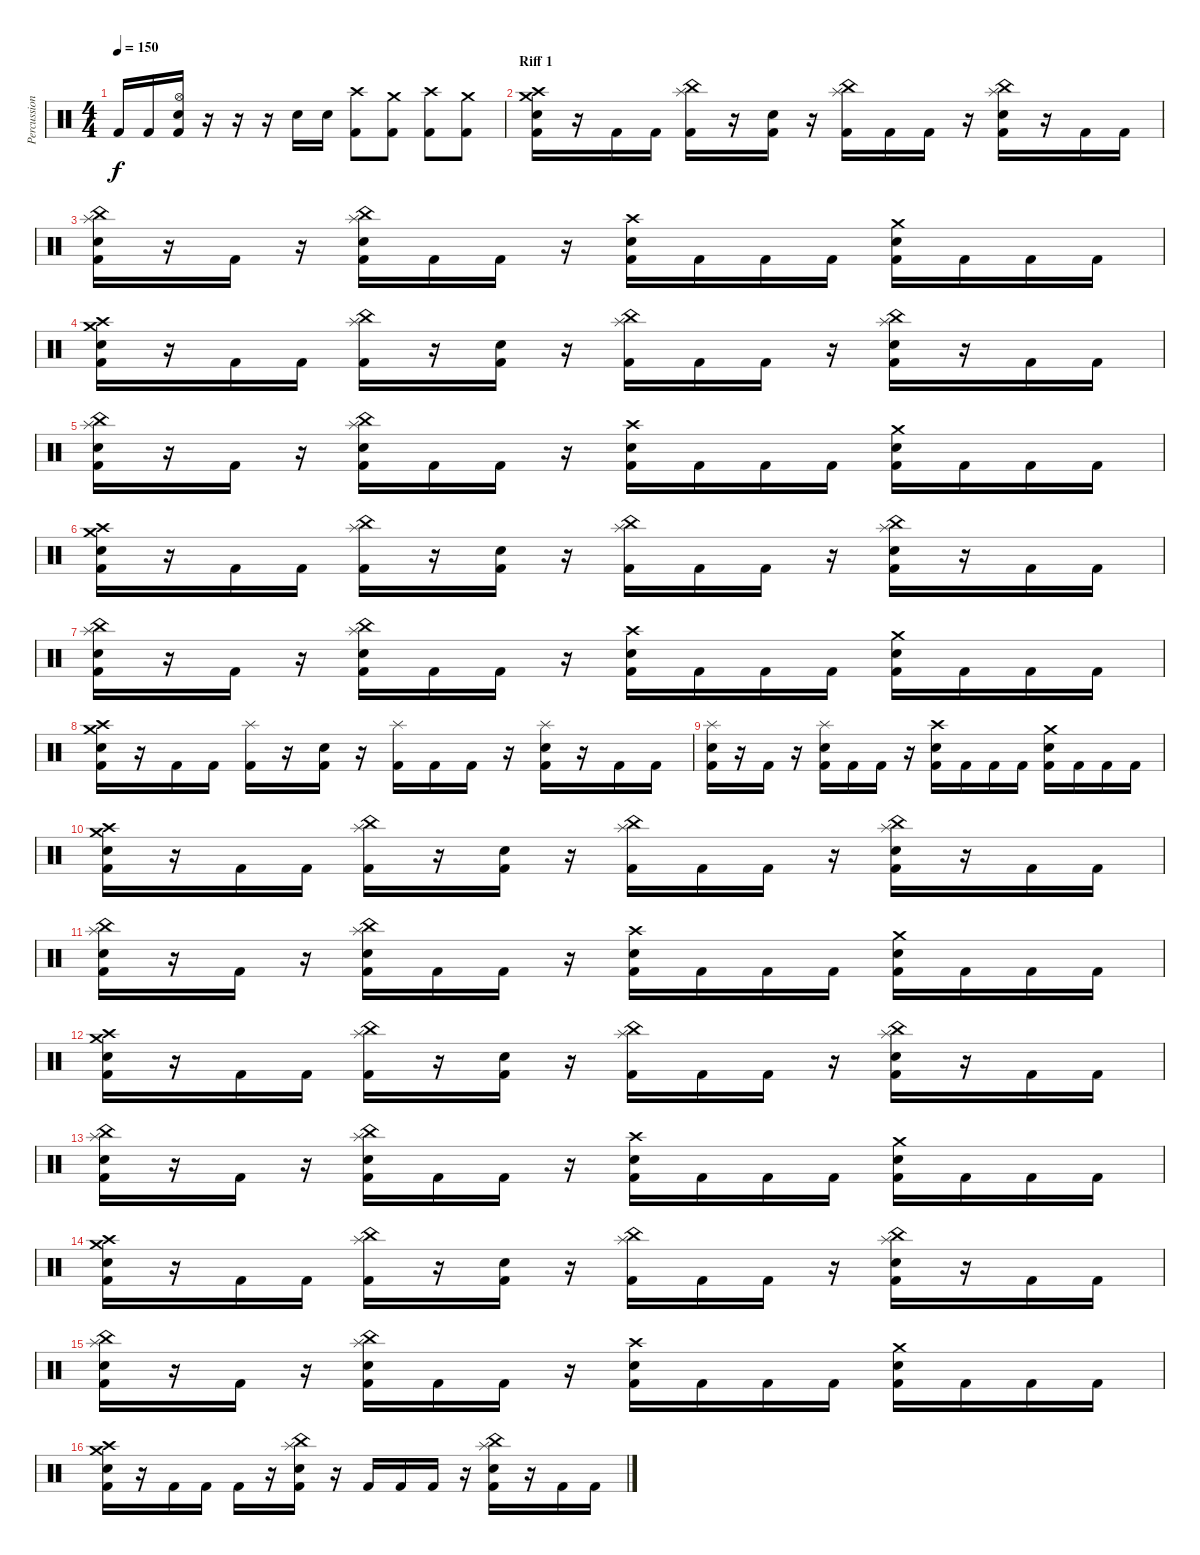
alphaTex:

\track ("Percussion" "Percussion") {instrument percussion}
\staff {score}
\articulation defaults
\ts (4 4)
\tempo 150
\clef neutral
\ks c "Kick (hit) 2".16{dy f} "Kick (hit) 2".16
("Hi-Hat (open)" "Electric Snare (hit)" "Kick (hit) 2").16 r.16 r.16 r.16 "Electric Snare (hit)".16 "Electric Snare (hit)".16 ("Crash high (hit)" "Kick (hit) 2").8 ("Crash medium (hit)" "Kick (hit) 2").8 ("Crash high (hit)" "Kick (hit) 2").8 ("Crash medium (hit)" "Kick (hit) 2").8 |
\section ("" "Riff 1")
("Crash medium (hit)" "Crash high (hit)" "Electric Snare (hit)" "Kick (hit) 2").16 r.16 "Kick (hit) 2".16 "Kick (hit) 2".16 ("Splash (hit)" "China (hit)" "Kick (hit) 2").16 r.16 ("Electric Snare (hit)" "Kick (hit) 2").16 r.16 ("Splash (hit)" "China (hit)" "Kick (hit) 2").16 "Kick (hit) 2".16 "Kick (hit) 2".16 r.16 ("Splash (hit)" "China (hit)" "Electric Snare (hit)" "Kick (hit) 2").16 r.16 "Kick (hit) 2".16 "Kick (hit) 2".16 |
("Splash (hit)" "China (hit)" "Electric Snare (hit)" "Kick (hit) 2").16 r.16 "Kick (hit) 2".16 r.16 ("Splash (hit)" "China (hit)" "Electric Snare (hit)" "Kick (hit) 2").16 "Kick (hit) 2".16 "Kick (hit) 2".16 r.16 ("Crash high (hit)" "Electric Snare (hit)" "Kick (hit) 2").16 "Kick (hit) 2".16 "Kick (hit) 2".16 "Kick (hit) 2".16 ("Crash medium (hit)" "Electric Snare (hit)" "Kick (hit) 2").16 "Kick (hit) 2".16 "Kick (hit) 2".16 "Kick (hit) 2".16 |
("Crash medium (hit)" "Crash high (hit)" "Electric Snare (hit)" "Kick (hit) 2").16 r.16 "Kick (hit) 2".16 "Kick (hit) 2".16 ("Splash (hit)" "China (hit)" "Kick (hit) 2").16 r.16 ("Electric Snare (hit)" "Kick (hit) 2").16 r.16 ("Splash (hit)" "China (hit)" "Kick (hit) 2").16 "Kick (hit) 2".16 "Kick (hit) 2".16 r.16 ("Splash (hit)" "China (hit)" "Electric Snare (hit)" "Kick (hit) 2").16 r.16 "Kick (hit) 2".16 "Kick (hit) 2".16 |
("Splash (hit)" "China (hit)" "Electric Snare (hit)" "Kick (hit) 2").16 r.16 "Kick (hit) 2".16 r.16 ("Splash (hit)" "China (hit)" "Electric Snare (hit)" "Kick (hit) 2").16 "Kick (hit) 2".16 "Kick (hit) 2".16 r.16 ("Crash high (hit)" "Electric Snare (hit)" "Kick (hit) 2").16 "Kick (hit) 2".16 "Kick (hit) 2".16 "Kick (hit) 2".16 ("Crash medium (hit)" "Electric Snare (hit)" "Kick (hit) 2").16 "Kick (hit) 2".16 "Kick (hit) 2".16 "Kick (hit) 2".16 |
("Crash medium (hit)" "Crash high (hit)" "Electric Snare (hit)" "Kick (hit) 2").16 r.16 "Kick (hit) 2".16 "Kick (hit) 2".16 ("Splash (hit)" "China (hit)" "Kick (hit) 2").16 r.16 ("Electric Snare (hit)" "Kick (hit) 2").16 r.16 ("Splash (hit)" "China (hit)" "Kick (hit) 2").16 "Kick (hit) 2".16 "Kick (hit) 2".16 r.16 ("Splash (hit)" "China (hit)" "Electric Snare (hit)" "Kick (hit) 2").16 r.16 "Kick (hit) 2".16 "Kick (hit) 2".16 |
("Splash (hit)" "China (hit)" "Electric Snare (hit)" "Kick (hit) 2").16 r.16 "Kick (hit) 2".16 r.16 ("Splash (hit)" "China (hit)" "Electric Snare (hit)" "Kick (hit) 2").16 "Kick (hit) 2".16 "Kick (hit) 2".16 r.16 ("Crash high (hit)" "Electric Snare (hit)" "Kick (hit) 2").16 "Kick (hit) 2".16 "Kick (hit) 2".16 "Kick (hit) 2".16 ("Crash medium (hit)" "Electric Snare (hit)" "Kick (hit) 2").16 "Kick (hit) 2".16 "Kick (hit) 2".16 "Kick (hit) 2".16 |
("Crash medium (hit)" "Crash high (hit)" "Electric Snare (hit)" "Kick (hit) 2").16 r.16 "Kick (hit) 2".16 "Kick (hit) 2".16 ("Splash (hit)" "Kick (hit) 2").16 r.16 ("Electric Snare (hit)" "Kick (hit) 2").16 r.16 ("Splash (hit)" "Kick (hit) 2").16 "Kick (hit) 2".16 "Kick (hit) 2".16 r.16 ("Splash (hit)" "Electric Snare (hit)" "Kick (hit) 2").16 r.16 "Kick (hit) 2".16 "Kick (hit) 2".16 |
("Splash (hit)" "Electric Snare (hit)" "Kick (hit) 2").16 r.16 "Kick (hit) 2".16 r.16 ("Splash (hit)" "Electric Snare (hit)" "Kick (hit) 2").16 "Kick (hit) 2".16 "Kick (hit) 2".16 r.16 ("Crash high (hit)" "Electric Snare (hit)" "Kick (hit) 2").16 "Kick (hit) 2".16 "Kick (hit) 2".16 "Kick (hit) 2".16 ("Crash medium (hit)" "Electric Snare (hit)" "Kick (hit) 2").16 "Kick (hit) 2".16 "Kick (hit) 2".16 "Kick (hit) 2".16 |
("Crash medium (hit)" "Crash high (hit)" "Electric Snare (hit)" "Kick (hit) 2").16 r.16 "Kick (hit) 2".16 "Kick (hit) 2".16 ("Splash (hit)" "China (hit)" "Kick (hit) 2").16 r.16 ("Electric Snare (hit)" "Kick (hit) 2").16 r.16 ("Splash (hit)" "China (hit)" "Kick (hit) 2").16 "Kick (hit) 2".16 "Kick (hit) 2".16 r.16 ("Splash (hit)" "China (hit)" "Electric Snare (hit)" "Kick (hit) 2").16 r.16 "Kick (hit) 2".16 "Kick (hit) 2".16 |
("Splash (hit)" "China (hit)" "Electric Snare (hit)" "Kick (hit) 2").16 r.16 "Kick (hit) 2".16 r.16 ("Splash (hit)" "China (hit)" "Electric Snare (hit)" "Kick (hit) 2").16 "Kick (hit) 2".16 "Kick (hit) 2".16 r.16 ("Crash high (hit)" "Electric Snare (hit)" "Kick (hit) 2").16 "Kick (hit) 2".16 "Kick (hit) 2".16 "Kick (hit) 2".16 ("Crash medium (hit)" "Electric Snare (hit)" "Kick (hit) 2").16 "Kick (hit) 2".16 "Kick (hit) 2".16 "Kick (hit) 2".16 |
("Crash medium (hit)" "Crash high (hit)" "Electric Snare (hit)" "Kick (hit) 2").16 r.16 "Kick (hit) 2".16 "Kick (hit) 2".16 ("Splash (hit)" "China (hit)" "Kick (hit) 2").16 r.16 ("Electric Snare (hit)" "Kick (hit) 2").16 r.16 ("Splash (hit)" "China (hit)" "Kick (hit) 2").16 "Kick (hit) 2".16 "Kick (hit) 2".16 r.16 ("Splash (hit)" "China (hit)" "Electric Snare (hit)" "Kick (hit) 2").16 r.16 "Kick (hit) 2".16 "Kick (hit) 2".16 |
("Splash (hit)" "China (hit)" "Electric Snare (hit)" "Kick (hit) 2").16 r.16 "Kick (hit) 2".16 r.16 ("Splash (hit)" "China (hit)" "Electric Snare (hit)" "Kick (hit) 2").16 "Kick (hit) 2".16 "Kick (hit) 2".16 r.16 ("Crash high (hit)" "Electric Snare (hit)" "Kick (hit) 2").16 "Kick (hit) 2".16 "Kick (hit) 2".16 "Kick (hit) 2".16 ("Crash medium (hit)" "Electric Snare (hit)" "Kick (hit) 2").16 "Kick (hit) 2".16 "Kick (hit) 2".16 "Kick (hit) 2".16 |
("Crash medium (hit)" "Crash high (hit)" "Electric Snare (hit)" "Kick (hit) 2").16 r.16 "Kick (hit) 2".16 "Kick (hit) 2".16 ("Splash (hit)" "China (hit)" "Kick (hit) 2").16 r.16 ("Electric Snare (hit)" "Kick (hit) 2").16 r.16 ("Splash (hit)" "China (hit)" "Kick (hit) 2").16 "Kick (hit) 2".16 "Kick (hit) 2".16 r.16 ("Splash (hit)" "China (hit)" "Electric Snare (hit)" "Kick (hit) 2").16 r.16 "Kick (hit) 2".16 "Kick (hit) 2".16 |
("Splash (hit)" "China (hit)" "Electric Snare (hit)" "Kick (hit) 2").16 r.16 "Kick (hit) 2".16 r.16 ("Splash (hit)" "China (hit)" "Electric Snare (hit)" "Kick (hit) 2").16 "Kick (hit) 2".16 "Kick (hit) 2".16 r.16 ("Crash high (hit)" "Electric Snare (hit)" "Kick (hit) 2").16 "Kick (hit) 2".16 "Kick (hit) 2".16 "Kick (hit) 2".16 ("Crash medium (hit)" "Electric Snare (hit)" "Kick (hit) 2").16 "Kick (hit) 2".16 "Kick (hit) 2".16 "Kick (hit) 2".16 |
("Crash medium (hit)" "Crash high (hit)" "Electric Snare (hit)" "Kick (hit) 2").16 r.16 "Kick (hit) 2".16 "Kick (hit) 2".16 "Kick (hit) 2".16 r.16 ("Splash (hit)" "China (hit)" "Electric Snare (hit)" "Kick (hit) 2").16 r.16 "Kick (hit) 2".16 "Kick (hit) 2".16 "Kick (hit) 2".16 r.16 ("Splash (hit)" "China (hit)" "Electric Snare (hit)" "Kick (hit) 2").16 r.16 "Kick (hit) 2".16 "Kick (hit) 2".16
